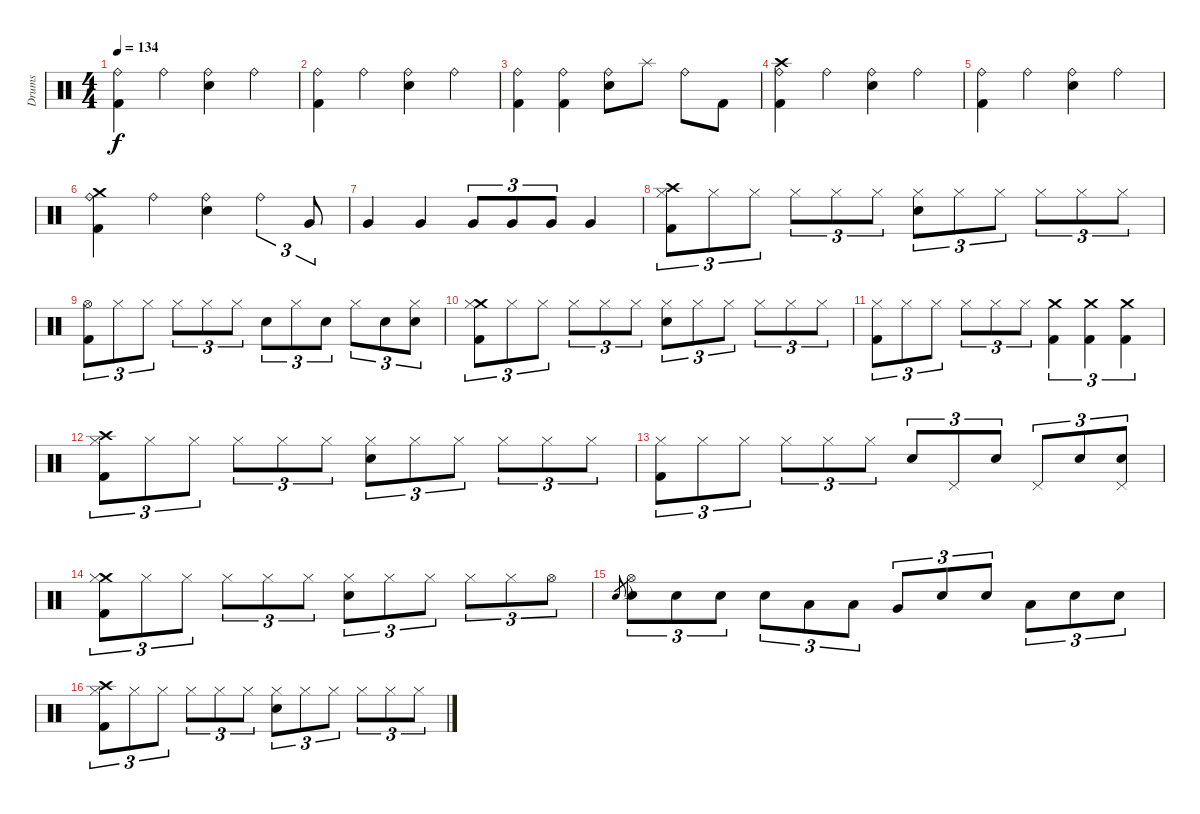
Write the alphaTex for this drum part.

\track ("Drums" "Drums") {instrument percussion}
\staff {score}
\articulation defaults
\ts (4 4)
\tempo 134
\clef neutral
\ks c
("Ride (bell)" "Kick (hit) 2").4{dy f} "Ride (bell)".4 ("Ride (bell)" "Electric Snare (hit)").4 "Ride (bell)".4 |
("Ride (bell)" "Kick (hit) 2").4 "Ride (bell)".4 ("Ride (bell)" "Electric Snare (hit)").4 "Ride (bell)".4 |
("Ride (bell)" "Kick (hit) 2").4 ("Ride (bell)" "Kick (hit) 2").4 ("Ride (bell)" "Electric Snare (hit)").8 "Splash (hit)".8 "Ride (bell)".8 "Kick (hit) 2".8 |
("Crash high (hit)" "Ride (bell)" "Kick (hit) 2").4 "Ride (bell)".4 ("Ride (bell)" "Electric Snare (hit)").4 "Ride (bell)".4 |
("Ride (bell)" "Kick (hit) 2").4 "Ride (bell)".4 ("Ride (bell)" "Electric Snare (hit)").4 "Ride (bell)".4 |
("Crash medium (hit)" "Ride (bell)" "Kick (hit) 2").4 "Ride (bell)".4 ("Ride (bell)" "Electric Snare (hit)").4 "Ride (bell)".4{tu (3 2)} "Very Low Tom (hit)".8{tu (3 2)} |
"Very Low Tom (hit)".4 "Very Low Tom (hit)".4 "Very Low Tom (hit)".8{tu (3 2)} "Very Low Tom (hit)".8{tu (3 2)} "Very Low Tom (hit)".8{tu (3 2)} "Very Low Tom (hit)".4 |
("Crash high (hit)" "Hi-Hat (closed)" "Kick (hit) 2").8{tu (3 2)} "Hi-Hat (closed)".8{tu (3 2)} "Hi-Hat (closed)".8{tu (3 2)} "Hi-Hat (closed)".8{tu (3 2)} "Hi-Hat (closed)".8{tu (3 2)} "Hi-Hat (closed)".8{tu (3 2)} ("Hi-Hat (closed)" "Electric Snare (hit)").8{tu (3 2)} "Hi-Hat (closed)".8{tu (3 2)} "Hi-Hat (closed)".8{tu (3 2)} "Hi-Hat (closed)".8{tu (3 2)} "Hi-Hat (closed)".8{tu (3 2)} "Hi-Hat (closed)".8{tu (3 2)} |
("Hi-Hat (open)" "Kick (hit) 2").8{tu (3 2)} "Hi-Hat (closed)".8{tu (3 2)} "Hi-Hat (closed)".8{tu (3 2)} "Hi-Hat (closed)".8{tu (3 2)} "Hi-Hat (closed)".8{tu (3 2)} "Hi-Hat (closed)".8{tu (3 2)} "Electric Snare (hit)".8{tu (3 2)} "Hi-Hat (closed)".8{tu (3 2)} "Electric Snare (hit)".8{tu (3 2)} "Hi-Hat (closed)".8{tu (3 2)} "Electric Snare (hit)".8{tu (3 2)} ("Hi-Hat (closed)" "Electric Snare (hit)").8{tu (3 2)} |
("Crash medium (hit)" "Hi-Hat (closed)" "Kick (hit) 2").8{tu (3 2)} "Hi-Hat (closed)".8{tu (3 2)} "Hi-Hat (closed)".8{tu (3 2)} "Hi-Hat (closed)".8{tu (3 2)} "Hi-Hat (closed)".8{tu (3 2)} "Hi-Hat (closed)".8{tu (3 2)} ("Hi-Hat (closed)" "Electric Snare (hit)").8{tu (3 2)} "Hi-Hat (closed)".8{tu (3 2)} "Hi-Hat (closed)".8{tu (3 2)} "Hi-Hat (closed)".8{tu (3 2)} "Hi-Hat (closed)".8{tu (3 2)} "Hi-Hat (closed)".8{tu (3 2)} |
("Hi-Hat (closed)" "Kick (hit) 2").8{tu (3 2)} "Hi-Hat (closed)".8{tu (3 2)} "Hi-Hat (closed)".8{tu (3 2)} "Hi-Hat (closed)".8{tu (3 2)} "Hi-Hat (closed)".8{tu (3 2)} "Hi-Hat (closed)".8{tu (3 2)} ("Crash medium (hit)" "Kick (hit) 2").4{tu (3 2)} ("Crash medium (hit)" "Kick (hit) 2").4{tu (3 2)} ("Crash medium (hit)" "Kick (hit) 2").4{tu (3 2)} |
("Crash high (hit)" "Hi-Hat (closed)" "Kick (hit) 2").8{tu (3 2)} "Hi-Hat (closed)".8{tu (3 2)} "Hi-Hat (closed)".8{tu (3 2)} "Hi-Hat (closed)".8{tu (3 2)} "Hi-Hat (closed)".8{tu (3 2)} "Hi-Hat (closed)".8{tu (3 2)} ("Hi-Hat (closed)" "Electric Snare (hit)").8{tu (3 2)} "Hi-Hat (closed)".8{tu (3 2)} "Hi-Hat (closed)".8{tu (3 2)} "Hi-Hat (closed)".8{tu (3 2)} "Hi-Hat (closed)".8{tu (3 2)} "Hi-Hat (closed)".8{tu (3 2)} |
("Hi-Hat (closed)" "Kick (hit) 2").8{tu (3 2)} "Hi-Hat (closed)".8{tu (3 2)} "Hi-Hat (closed)".8{tu (3 2)} "Hi-Hat (closed)".8{tu (3 2)} "Hi-Hat (closed)".8{tu (3 2)} "Hi-Hat (closed)".8{tu (3 2)} "Electric Snare (hit)".8{tu (3 2)} "Pedal Hi-Hat (hit)".8{tu (3 2)} "Electric Snare (hit)".8{tu (3 2)} "Pedal Hi-Hat (hit)".8{tu (3 2)} "Electric Snare (hit)".8{tu (3 2)} ("Pedal Hi-Hat (hit)" "Electric Snare (hit)").8{tu (3 2)} |
("Crash medium (hit)" "Hi-Hat (closed)" "Kick (hit) 2").8{tu (3 2)} "Hi-Hat (closed)".8{tu (3 2)} "Hi-Hat (closed)".8{tu (3 2)} "Hi-Hat (closed)".8{tu (3 2)} "Hi-Hat (closed)".8{tu (3 2)} "Hi-Hat (closed)".8{tu (3 2)} ("Hi-Hat (closed)" "Electric Snare (hit)").8{tu (3 2)} "Hi-Hat (closed)".8{tu (3 2)} "Hi-Hat (closed)".8{tu (3 2)} "Hi-Hat (closed)".8{tu (3 2)} "Hi-Hat (closed)".8{tu (3 2)} "Hi-Hat (open)".8{tu (3 2)} |
"Electric Snare (hit)".8{gr} ("Hi-Hat (open)"{t} "Electric Snare (hit)").8{tu (3 2)} "Electric Snare (hit)".8{tu (3 2)} "Electric Snare (hit)".8{tu (3 2)} "Electric Snare (hit)".8{tu (3 2)} "Low Floor Tom (hit)".8{tu (3 2)} "Low Floor Tom (hit)".8{tu (3 2)} "Very Low Tom (hit)".8{tu (3 2)} "Electric Snare (hit)".8{tu (3 2)} "Electric Snare (hit)".8{tu (3 2)} "Low Floor Tom (hit)".8{tu (3 2)} "Electric Snare (hit)".8{tu (3 2)} "Electric Snare (hit)".8{tu (3 2)} |
("Crash high (hit)" "Hi-Hat (closed)" "Kick (hit) 2").8{tu (3 2)} "Hi-Hat (closed)".8{tu (3 2)} "Hi-Hat (closed)".8{tu (3 2)} "Hi-Hat (closed)".8{tu (3 2)} "Hi-Hat (closed)".8{tu (3 2)} "Hi-Hat (closed)".8{tu (3 2)} ("Hi-Hat (closed)" "Electric Snare (hit)").8{tu (3 2)} "Hi-Hat (closed)".8{tu (3 2)} "Hi-Hat (closed)".8{tu (3 2)} "Hi-Hat (closed)".8{tu (3 2)} "Hi-Hat (closed)".8{tu (3 2)} "Hi-Hat (closed)".8{tu (3 2)}
